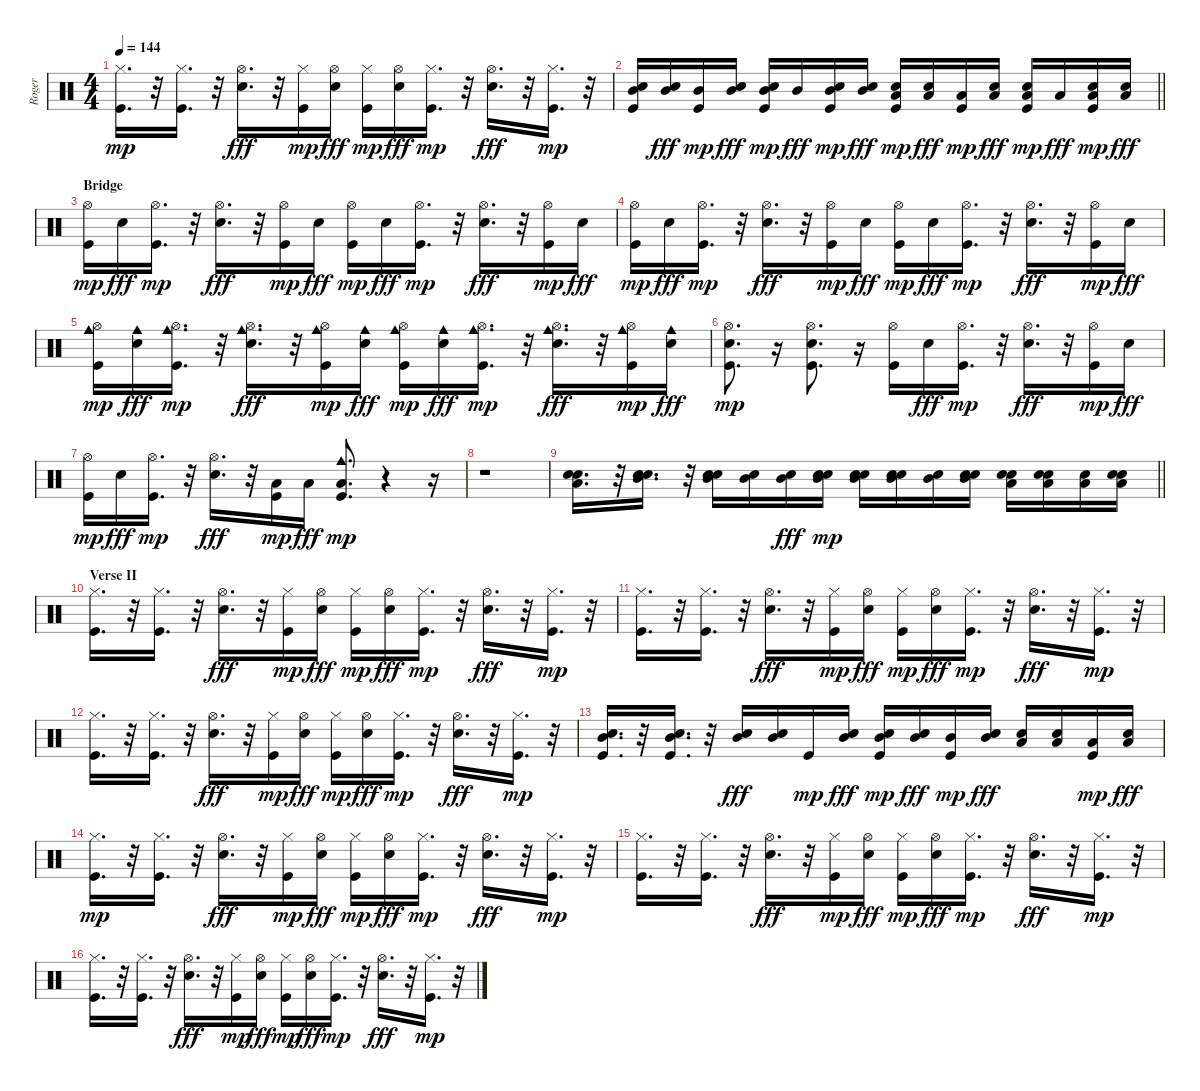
\track ("Roger" "Roger") {instrument percussion}
\staff {score}
\articulation defaults
\ts (4 4)
\tempo 144
\clef neutral
\ks c
("Hi-Hat (closed)" "Kick (hit)").16{d dy mp} r.32 ("Hi-Hat (closed)" "Kick (hit)").16{d} r.32 ("Snare (hit) 2" "Hi-Hat (open)").16{d dy fff} r.32 ("Hi-Hat (closed)" "Kick (hit)").16{dy mp} ("Snare (hit) 2" "Hi-Hat (open)").16{dy fff} ("Hi-Hat (closed)" "Kick (hit)").16{dy mp} ("Snare (hit) 2" "Hi-Hat (open)").16{dy fff} ("Hi-Hat (closed)" "Kick (hit)").16{d dy mp} r.32 ("Snare (hit) 2" "Hi-Hat (open)").16{d dy fff} r.32 ("Hi-Hat (closed)" "Kick (hit)").16{d dy mp} r.32 |
\barLineRight lightlight
("Mid Tom (hit)" "Snare (hit) 2" "Kick (hit)").16 ("Mid Tom (hit)" "Snare (hit) 2").16{dy fff} ("Mid Tom (hit)" "Kick (hit)").16{dy mp} ("Mid Tom (hit)" "Snare (hit) 2").16{dy fff} ("Mid Tom (hit)" "Snare (hit) 2" "Kick (hit)").16{dy mp} "Mid Tom (hit)".16{dy fff} ("Mid Tom (hit)" "Snare (hit) 2" "Kick (hit)").16{dy mp} ("Mid Tom (hit)" "Snare (hit) 2").16{dy fff} ("Low Tom (hit)" "Snare (hit) 2" "Kick (hit)").16{dy mp} ("Low Tom (hit)" "Snare (hit) 2").16{dy fff} ("Low Tom (hit)" "Kick (hit)").16{dy mp} ("Low Tom (hit)" "Snare (hit) 2").16{dy fff} ("Low Tom (hit)" "Snare (hit) 2" "Kick (hit)").16{dy mp} "Low Tom (hit)".16{dy fff} ("Low Tom (hit)" "Snare (hit) 2" "Kick (hit)").16{dy mp} ("Low Tom (hit)" "Snare (hit) 2").16{dy fff} |
\section ("" "Bridge")
("Hi-Hat (open)" "Kick (hit)").16{dy mp} "Snare (hit) 2".16{dy fff} ("Hi-Hat (open)" "Kick (hit)").16{d dy mp} r.32 ("Snare (hit) 2" "Hi-Hat (open)").16{d dy fff} r.32 ("Hi-Hat (open)" "Kick (hit)").16{dy mp} "Snare (hit) 2".16{dy fff} ("Hi-Hat (open)" "Kick (hit)").16{dy mp} "Snare (hit) 2".16{dy fff} ("Hi-Hat (open)" "Kick (hit)").16{d dy mp} r.32 ("Snare (hit) 2" "Hi-Hat (open)").16{d dy fff} r.32 ("Hi-Hat (open)" "Kick (hit)").16{dy mp} "Snare (hit) 2".16{dy fff} |
("Hi-Hat (open)" "Kick (hit)").16{dy mp} "Snare (hit) 2".16{dy fff} ("Hi-Hat (open)" "Kick (hit)").16{d dy mp} r.32 ("Snare (hit) 2" "Hi-Hat (open)").16{d dy fff} r.32 ("Hi-Hat (open)" "Kick (hit)").16{dy mp} "Snare (hit) 2".16{dy fff} ("Hi-Hat (open)" "Kick (hit)").16{dy mp} "Snare (hit) 2".16{dy fff} ("Hi-Hat (open)" "Kick (hit)").16{d dy mp} r.32 ("Snare (hit) 2" "Hi-Hat (open)").16{d dy fff} r.32 ("Hi-Hat (open)" "Kick (hit)").16{dy mp} "Snare (hit) 2".16{dy fff} |
("Hi-Hat (open)" "Cowbell medium (hit)" "Kick (hit)").16{dy mp} ("Snare (hit) 2" "Cowbell medium (hit)").16{dy fff} ("Hi-Hat (open)" "Cowbell medium (hit)" "Kick (hit)").16{d dy mp} r.32 ("Snare (hit) 2" "Hi-Hat (open)" "Cowbell medium (hit)").16{d dy fff} r.32 ("Hi-Hat (open)" "Cowbell medium (hit)" "Kick (hit)").16{dy mp} ("Snare (hit) 2" "Cowbell medium (hit)").16{dy fff} ("Hi-Hat (open)" "Cowbell medium (hit)" "Kick (hit)").16{dy mp} ("Snare (hit) 2" "Cowbell medium (hit)").16{dy fff} ("Hi-Hat (open)" "Cowbell medium (hit)" "Kick (hit)").16{d dy mp} r.32 ("Snare (hit) 2" "Hi-Hat (open)" "Cowbell medium (hit)").16{d dy fff} r.32 ("Hi-Hat (open)" "Cowbell medium (hit)" "Kick (hit)").16{dy mp} ("Snare (hit) 2" "Cowbell medium (hit)").16{dy fff} |
("Snare (hit) 2" "Hi-Hat (open)" "Kick (hit)").8{d dy mp} r.16 ("Snare (hit) 2" "Hi-Hat (open)" "Kick (hit)").8{d} r.16 ("Hi-Hat (open)" "Kick (hit)").16 "Snare (hit) 2".16{dy fff} ("Hi-Hat (open)" "Kick (hit)").16{d dy mp} r.32 ("Snare (hit) 2" "Hi-Hat (open)").16{d dy fff} r.32 ("Hi-Hat (open)" "Kick (hit)").16{dy mp} "Snare (hit) 2".16{dy fff} |
("Hi-Hat (open)" "Kick (hit)").16{dy mp} "Snare (hit) 2".16{dy fff} ("Hi-Hat (open)" "Kick (hit)").16{d dy mp} r.32 ("Snare (hit) 2" "Hi-Hat (open)").16{d dy fff} r.32 ("Low Floor Tom (hit)" "Kick (hit)").16{dy mp} "Low Floor Tom (hit)".16{dy fff} ("Low Floor Tom (hit)" "Cowbell medium (hit)" "Kick (hit)").8{d dy mp} r.4 r.16 |
r.1 |
\barLineRight lightlight
("Low Tom (hit)" "Snare (hit) 2" "Electric Snare (hit)").16{d} r.32 ("Mid Tom (hit)" "Snare (hit) 2" "Electric Snare (hit)").16{d} r.32 ("Mid Tom (hit)" "Snare (hit) 2" "Electric Snare (hit)").16 ("Mid Tom (hit)" "Electric Snare (hit)").16 ("Mid Tom (hit)" "Snare (hit) 2").16{dy fff} ("Mid Tom (hit)" "Snare (hit) 2" "Electric Snare (hit)").16{dy mp} ("Mid Tom (hit)" "Snare (hit) 2" "Electric Snare (hit)").16 ("Mid Tom (hit)" "Snare (hit) 2" "Electric Snare (hit)").16 ("Mid Tom (hit)" "Electric Snare (hit)").16 ("Mid Tom (hit)" "Snare (hit) 2" "Electric Snare (hit)").16 ("Low Tom (hit)" "Snare (hit) 2" "Electric Snare (hit)").16 ("Low Tom (hit)" "Snare (hit) 2" "Electric Snare (hit)").16 ("Low Tom (hit)" "Electric Snare (hit)").16 ("Low Tom (hit)" "Snare (hit) 2" "Electric Snare (hit)").16 |
\section ("" "Verse II")
("Hi-Hat (closed)" "Kick (hit)").16{d} r.32 ("Hi-Hat (closed)" "Kick (hit)").16{d} r.32 ("Snare (hit) 2" "Hi-Hat (open)").16{d dy fff} r.32 ("Hi-Hat (closed)" "Kick (hit)").16{dy mp} ("Snare (hit) 2" "Hi-Hat (open)").16{dy fff} ("Hi-Hat (closed)" "Kick (hit)").16{dy mp} ("Snare (hit) 2" "Hi-Hat (open)").16{dy fff} ("Hi-Hat (closed)" "Kick (hit)").16{d dy mp} r.32 ("Snare (hit) 2" "Hi-Hat (open)").16{d dy fff} r.32 ("Hi-Hat (closed)" "Kick (hit)").16{d dy mp} r.32 |
("Hi-Hat (closed)" "Kick (hit)").16{d} r.32 ("Hi-Hat (closed)" "Kick (hit)").16{d} r.32 ("Snare (hit) 2" "Hi-Hat (open)").16{d dy fff} r.32 ("Hi-Hat (closed)" "Kick (hit)").16{dy mp} ("Snare (hit) 2" "Hi-Hat (open)").16{dy fff} ("Hi-Hat (closed)" "Kick (hit)").16{dy mp} ("Snare (hit) 2" "Hi-Hat (open)").16{dy fff} ("Hi-Hat (closed)" "Kick (hit)").16{d dy mp} r.32 ("Snare (hit) 2" "Hi-Hat (open)").16{d dy fff} r.32 ("Hi-Hat (closed)" "Kick (hit)").16{d dy mp} r.32 |
("Hi-Hat (closed)" "Kick (hit)").16{d} r.32 ("Hi-Hat (closed)" "Kick (hit)").16{d} r.32 ("Snare (hit) 2" "Hi-Hat (open)").16{d dy fff} r.32 ("Hi-Hat (closed)" "Kick (hit)").16{dy mp} ("Snare (hit) 2" "Hi-Hat (open)").16{dy fff} ("Hi-Hat (closed)" "Kick (hit)").16{dy mp} ("Snare (hit) 2" "Hi-Hat (open)").16{dy fff} ("Hi-Hat (closed)" "Kick (hit)").16{d dy mp} r.32 ("Snare (hit) 2" "Hi-Hat (open)").16{d dy fff} r.32 ("Hi-Hat (closed)" "Kick (hit)").16{d dy mp} r.32 |
("Mid Tom (hit)" "Snare (hit) 2" "Kick (hit)").16{d} r.32 ("Mid Tom (hit)" "Snare (hit) 2" "Kick (hit)").16{d} r.32 ("Mid Tom (hit)" "Snare (hit) 2").16{dy fff} ("Mid Tom (hit)" "Snare (hit) 2").16 "Kick (hit)".16{dy mp} ("Mid Tom (hit)" "Snare (hit) 2").16{dy fff} ("Mid Tom (hit)" "Snare (hit) 2" "Kick (hit)").16{dy mp} ("Mid Tom (hit)" "Snare (hit) 2").16{dy fff} ("Mid Tom (hit)" "Kick (hit)").16{dy mp} ("Mid Tom (hit)" "Snare (hit) 2").16{dy fff} ("Low Tom (hit)" "Snare (hit) 2").16 ("Low Tom (hit)" "Snare (hit) 2").16 ("Low Tom (hit)" "Kick (hit)").16{dy mp} ("Low Tom (hit)" "Snare (hit) 2").16{dy fff} |
("Hi-Hat (closed)" "Kick (hit)").16{d dy mp} r.32 ("Hi-Hat (closed)" "Kick (hit)").16{d} r.32 ("Snare (hit) 2" "Hi-Hat (open)").16{d dy fff} r.32 ("Hi-Hat (closed)" "Kick (hit)").16{dy mp} ("Snare (hit) 2" "Hi-Hat (open)").16{dy fff} ("Hi-Hat (closed)" "Kick (hit)").16{dy mp} ("Snare (hit) 2" "Hi-Hat (open)").16{dy fff} ("Hi-Hat (closed)" "Kick (hit)").16{d dy mp} r.32 ("Snare (hit) 2" "Hi-Hat (open)").16{d dy fff} r.32 ("Hi-Hat (closed)" "Kick (hit)").16{d dy mp} r.32 |
("Hi-Hat (closed)" "Kick (hit)").16{d} r.32 ("Hi-Hat (closed)" "Kick (hit)").16{d} r.32 ("Snare (hit) 2" "Hi-Hat (open)").16{d dy fff} r.32 ("Hi-Hat (closed)" "Kick (hit)").16{dy mp} ("Snare (hit) 2" "Hi-Hat (open)").16{dy fff} ("Hi-Hat (closed)" "Kick (hit)").16{dy mp} ("Snare (hit) 2" "Hi-Hat (open)").16{dy fff} ("Hi-Hat (closed)" "Kick (hit)").16{d dy mp} r.32 ("Snare (hit) 2" "Hi-Hat (open)").16{d dy fff} r.32 ("Hi-Hat (closed)" "Kick (hit)").16{d dy mp} r.32 |
("Hi-Hat (closed)" "Kick (hit)").16{d} r.32 ("Hi-Hat (closed)" "Kick (hit)").16{d} r.32 ("Snare (hit) 2" "Hi-Hat (open)").16{d dy fff} r.32 ("Hi-Hat (closed)" "Kick (hit)").16{dy mp} ("Snare (hit) 2" "Hi-Hat (open)").16{dy fff} ("Hi-Hat (closed)" "Kick (hit)").16{dy mp} ("Snare (hit) 2" "Hi-Hat (open)").16{dy fff} ("Hi-Hat (closed)" "Kick (hit)").16{d dy mp} r.32 ("Snare (hit) 2" "Hi-Hat (open)").16{d dy fff} r.32 ("Hi-Hat (closed)" "Kick (hit)").16{d dy mp} r.32
